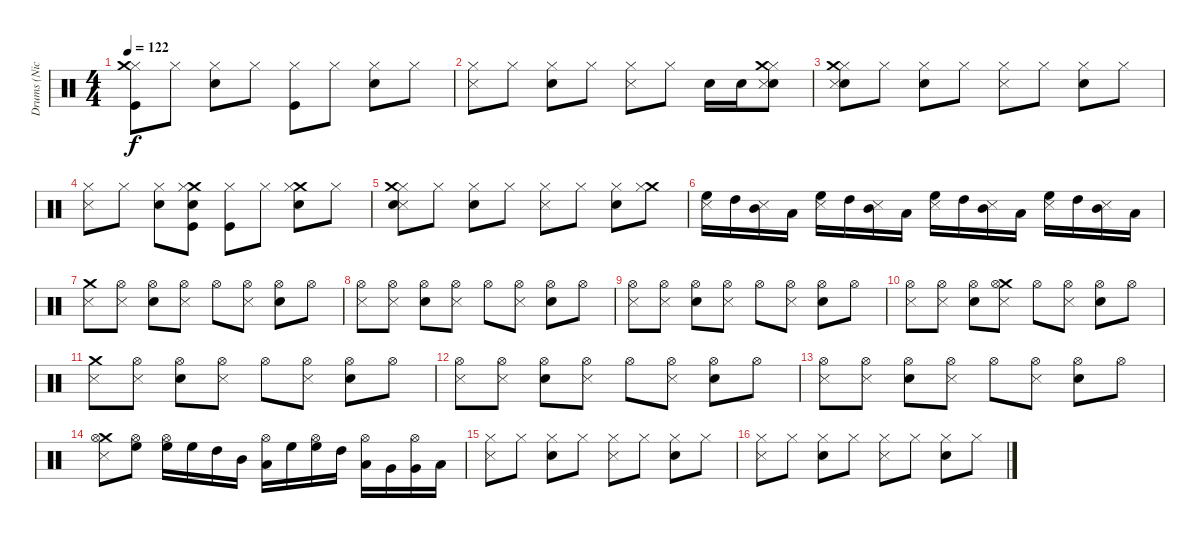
\track ("Drums (Nick Menza)" "Drums (Nic") {instrument percussion}
\staff {score}
\articulation defaults
\ts (4 4)
\tempo 122
\clef neutral
\ks c
("Hi-Hat (closed)" "Kick (hit)" "Crash medium (hit)").8{dy f} "Hi-Hat (closed)".8 ("Electric Snare (hit)" "Hi-Hat (closed)").8 "Hi-Hat (closed)".8 ("Kick (hit)" "Hi-Hat (closed)").8 "Hi-Hat (closed)".8 ("Electric Snare (hit)" "Hi-Hat (closed)").8 "Hi-Hat (closed)".8 |
("Hi-Hat (closed)" "Metronome (hit)").8 "Hi-Hat (closed)".8 ("Hi-Hat (closed)" "Electric Snare (hit)").8 "Hi-Hat (closed)".8 ("Hi-Hat (closed)" "Metronome (hit)").8 "Hi-Hat (closed)".8 "Electric Snare (hit)".16 "Electric Snare (hit)".16 ("Hi-Hat (closed)" "Electric Snare (hit)" "Metronome (hit)" "Crash medium (hit)").8 |
("Hi-Hat (closed)" "Crash medium (hit)" "Electric Snare (hit)" "Metronome (hit)").8 "Hi-Hat (closed)".8 ("Electric Snare (hit)" "Hi-Hat (closed)").8 "Hi-Hat (closed)".8 ("Metronome (hit)" "Hi-Hat (closed)").8 "Hi-Hat (closed)".8 ("Electric Snare (hit)" "Hi-Hat (closed)").8 "Hi-Hat (closed)".8 |
("Hi-Hat (closed)" "Metronome (hit)").8 "Hi-Hat (closed)".8 ("Electric Snare (hit)" "Hi-Hat (closed)").8 ("Electric Snare (hit)" "Kick (hit)" "Crash medium (hit)" "Hi-Hat (closed)").8 ("Kick (hit)" "Hi-Hat (closed)").8 "Hi-Hat (closed)".8 ("Crash medium (hit)" "Electric Snare (hit)" "Hi-Hat (closed)").8 "Hi-Hat (closed)".8 |
("Metronome (hit)" "Electric Snare (hit)" "Hi-Hat (closed)" "Crash medium (hit)").8 "Hi-Hat (closed)".8 ("Electric Snare (hit)" "Hi-Hat (closed)").8 "Hi-Hat (closed)".8 ("Metronome (hit)" "Hi-Hat (closed)").8 "Hi-Hat (closed)".8 ("Electric Snare (hit)" "Hi-Hat (closed)").8 ("Crash medium (hit)" "Hi-Hat (closed)").8 |
("Metronome (hit)" "High Floor Tom (hit)").16 "High Tom (hit)".16 ("Metronome (hit)" "Mid Tom (hit)").16 "Low Tom (hit)".16 ("Metronome (hit)" "High Floor Tom (hit)").16 "High Tom (hit)".16 ("Metronome (hit)" "Mid Tom (hit)").16 "Low Tom (hit)".16 ("Metronome (hit)" "High Floor Tom (hit)").16 "High Tom (hit)".16 ("Metronome (hit)" "Mid Tom (hit)").16 "Low Tom (hit)".16 ("Metronome (hit)" "High Floor Tom (hit)").16 "High Tom (hit)".16 ("Metronome (hit)" "Mid Tom (hit)").16 "Low Tom (hit)".16 |
("Crash medium (hit)" "Metronome (hit)").8 ("Hi-Hat (open)" "Metronome (hit)").8 ("Hi-Hat (open)" "Electric Snare (hit)").8 ("Hi-Hat (open)" "Metronome (hit)").8 "Hi-Hat (open)".8 ("Metronome (hit)" "Hi-Hat (open)").8 ("Electric Snare (hit)" "Hi-Hat (open)").8 "Hi-Hat (open)".8 |
("Hi-Hat (open)" "Metronome (hit)").8 ("Hi-Hat (open)" "Metronome (hit)").8 ("Hi-Hat (open)" "Electric Snare (hit)").8 ("Hi-Hat (open)" "Metronome (hit)").8 "Hi-Hat (open)".8 ("Metronome (hit)" "Hi-Hat (open)").8 ("Electric Snare (hit)" "Hi-Hat (open)").8 "Hi-Hat (open)".8 |
("Hi-Hat (open)" "Metronome (hit)").8 ("Hi-Hat (open)" "Metronome (hit)").8 ("Hi-Hat (open)" "Electric Snare (hit)").8 ("Hi-Hat (open)" "Metronome (hit)").8 "Hi-Hat (open)".8 ("Metronome (hit)" "Hi-Hat (open)").8 ("Electric Snare (hit)" "Hi-Hat (open)").8 "Hi-Hat (open)".8 |
("Hi-Hat (open)" "Metronome (hit)").8 ("Hi-Hat (open)" "Metronome (hit)").8 ("Hi-Hat (open)" "Electric Snare (hit)").8 ("Crash medium (hit)" "Hi-Hat (open)" "Metronome (hit)").8 "Hi-Hat (open)".8 ("Metronome (hit)" "Hi-Hat (open)").8 ("Electric Snare (hit)" "Hi-Hat (open)").8 "Hi-Hat (open)".8 |
("Crash medium (hit)" "Metronome (hit)").8 ("Hi-Hat (open)" "Metronome (hit)").8 ("Hi-Hat (open)" "Electric Snare (hit)").8 ("Hi-Hat (open)" "Metronome (hit)").8 "Hi-Hat (open)".8 ("Metronome (hit)" "Hi-Hat (open)").8 ("Electric Snare (hit)" "Hi-Hat (open)").8 "Hi-Hat (open)".8 |
("Hi-Hat (open)" "Metronome (hit)").8 ("Hi-Hat (open)" "Metronome (hit)").8 ("Hi-Hat (open)" "Electric Snare (hit)").8 ("Hi-Hat (open)" "Metronome (hit)").8 "Hi-Hat (open)".8 ("Metronome (hit)" "Hi-Hat (open)").8 ("Electric Snare (hit)" "Hi-Hat (open)").8 "Hi-Hat (open)".8 |
("Hi-Hat (open)" "Metronome (hit)").8 ("Hi-Hat (open)" "Metronome (hit)").8 ("Hi-Hat (open)" "Electric Snare (hit)").8 ("Hi-Hat (open)" "Metronome (hit)").8 "Hi-Hat (open)".8 ("Metronome (hit)" "Hi-Hat (open)").8 ("Electric Snare (hit)" "Hi-Hat (open)").8 "Hi-Hat (open)".8 |
("Crash medium (hit)" "Hi-Hat (open)" "Metronome (hit)").8 ("High Floor Tom (hit)" "Hi-Hat (open)").8 ("High Floor Tom (hit)" "Hi-Hat (open)").16 "High Floor Tom (hit)".16 "High Tom (hit)".16 "Mid Tom (hit)".16 ("Low Tom (hit)" "Hi-Hat (open)").16 "High Floor Tom (hit)".16 ("High Floor Tom (hit)" "Hi-Hat (open)").16 "High Tom (hit)".16 ("Low Tom (hit)" "Hi-Hat (open)").16 "Very Low Tom (hit)".16 ("Very Low Tom (hit)" "Hi-Hat (open)").16 "Low Floor Tom (hit)".16 |
("Hi-Hat (closed)" "Metronome (hit)").8 "Hi-Hat (closed)".8 ("Hi-Hat (closed)" "Electric Snare (hit)").8 "Hi-Hat (closed)".8 ("Hi-Hat (closed)" "Metronome (hit)").8 "Hi-Hat (closed)".8 ("Hi-Hat (closed)" "Electric Snare (hit)").8 "Hi-Hat (closed)".8 |
("Hi-Hat (closed)" "Metronome (hit)").8 "Hi-Hat (closed)".8 ("Hi-Hat (closed)" "Electric Snare (hit)").8 "Hi-Hat (closed)".8 ("Hi-Hat (closed)" "Metronome (hit)").8 "Hi-Hat (closed)".8 ("Hi-Hat (closed)" "Electric Snare (hit)").8 "Hi-Hat (closed)".8
